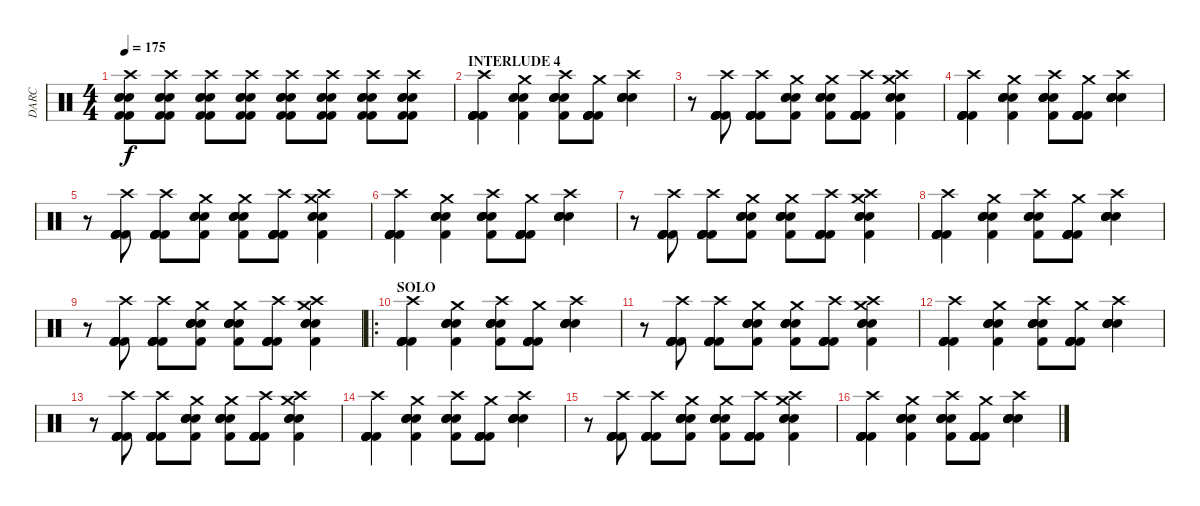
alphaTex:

\track ("DARC" "DARC") {instrument percussion}
\staff {score}
\articulation defaults
\ts (4 4)
\tempo 175
\clef neutral
\ks c
("Kick (hit) 2" "Electric Snare (hit)" "Electric Snare (hit)" "Kick (hit) 2" "Crash high (hit)" "Electric Snare (hit)").8{dy f} ("Kick (hit) 2" "Electric Snare (hit)" "Electric Snare (hit)" "Kick (hit) 2" "Crash high (hit)" "Electric Snare (hit)").8 ("Kick (hit) 2" "Electric Snare (hit)" "Electric Snare (hit)" "Kick (hit) 2" "Crash high (hit)" "Electric Snare (hit)").8 ("Kick (hit) 2" "Electric Snare (hit)" "Electric Snare (hit)" "Kick (hit) 2" "Crash high (hit)" "Electric Snare (hit)").8 ("Kick (hit) 2" "Electric Snare (hit)" "Electric Snare (hit)" "Kick (hit) 2" "Crash high (hit)" "Electric Snare (hit)").8 ("Kick (hit) 2" "Electric Snare (hit)" "Electric Snare (hit)" "Kick (hit) 2" "Crash high (hit)" "Electric Snare (hit)").8 ("Kick (hit) 2" "Electric Snare (hit)" "Electric Snare (hit)" "Kick (hit) 2" "Crash high (hit)" "Electric Snare (hit)").8 ("Kick (hit) 2" "Electric Snare (hit)" "Electric Snare (hit)" "Kick (hit) 2" "Crash high (hit)" "Electric Snare (hit)").8 |
\section ("" "INTERLUDE 4")
("Kick (hit) 2" "Kick (hit) 2" "Kick (hit) 2" "Kick (hit) 2" "Crash high (hit)" "Kick (hit) 2").4 ("Electric Snare (hit)" "Electric Snare (hit)" "Electric Snare (hit)" "Kick (hit) 2" "Crash medium (hit)" "Electric Snare (hit)").4 ("Electric Snare (hit)" "Kick (hit) 2" "Electric Snare (hit)" "Electric Snare (hit)" "Crash high (hit)" "Electric Snare (hit)").8 ("Kick (hit) 2" "Kick (hit) 2" "Kick (hit) 2" "Kick (hit) 2" "Crash medium (hit)" "Kick (hit) 2").8 ("Electric Snare (hit)" "Electric Snare (hit)" "Electric Snare (hit)" "Electric Snare (hit)" "Crash high (hit)" "Electric Snare (hit)").4 |
r.8 ("Kick (hit) 2" "Kick (hit) 2" "Kick (hit) 2" "Kick (hit) 2" "Crash high (hit)" "Kick (hit) 2").8 ("Kick (hit) 2" "Kick (hit) 2" "Kick (hit) 2" "Kick (hit) 2" "Crash high (hit)" "Kick (hit) 2").8 ("Kick (hit) 2" "Electric Snare (hit)" "Electric Snare (hit)" "Electric Snare (hit)" "Crash medium (hit)" "Electric Snare (hit)").8 ("Kick (hit) 2" "Electric Snare (hit)" "Electric Snare (hit)" "Electric Snare (hit)" "Crash medium (hit)" "Electric Snare (hit)").8 ("Kick (hit) 2" "Kick (hit) 2" "Kick (hit) 2" "Kick (hit) 2" "Crash high (hit)" "Kick (hit) 2").8 ("Crash high (hit)" "Kick (hit) 2" "Electric Snare (hit)" "Electric Snare (hit)" "Crash medium (hit)" "Electric Snare (hit)").4 |
("Kick (hit) 2" "Kick (hit) 2" "Kick (hit) 2" "Kick (hit) 2" "Crash high (hit)" "Kick (hit) 2").4 ("Electric Snare (hit)" "Electric Snare (hit)" "Electric Snare (hit)" "Kick (hit) 2" "Crash medium (hit)" "Electric Snare (hit)").4 ("Electric Snare (hit)" "Kick (hit) 2" "Electric Snare (hit)" "Electric Snare (hit)" "Crash high (hit)" "Electric Snare (hit)").8 ("Kick (hit) 2" "Kick (hit) 2" "Kick (hit) 2" "Kick (hit) 2" "Crash medium (hit)" "Kick (hit) 2").8 ("Electric Snare (hit)" "Electric Snare (hit)" "Electric Snare (hit)" "Electric Snare (hit)" "Crash high (hit)" "Electric Snare (hit)").4 |
r.8 ("Kick (hit) 2" "Kick (hit) 2" "Kick (hit) 2" "Kick (hit) 2" "Crash high (hit)" "Kick (hit) 2").8 ("Kick (hit) 2" "Kick (hit) 2" "Kick (hit) 2" "Kick (hit) 2" "Crash high (hit)" "Kick (hit) 2").8 ("Kick (hit) 2" "Electric Snare (hit)" "Electric Snare (hit)" "Electric Snare (hit)" "Crash medium (hit)" "Electric Snare (hit)").8 ("Kick (hit) 2" "Electric Snare (hit)" "Electric Snare (hit)" "Electric Snare (hit)" "Crash medium (hit)" "Electric Snare (hit)").8 ("Kick (hit) 2" "Kick (hit) 2" "Kick (hit) 2" "Kick (hit) 2" "Crash high (hit)" "Kick (hit) 2").8 ("Crash high (hit)" "Kick (hit) 2" "Electric Snare (hit)" "Electric Snare (hit)" "Crash medium (hit)" "Electric Snare (hit)").4 |
("Kick (hit) 2" "Kick (hit) 2" "Kick (hit) 2" "Kick (hit) 2" "Crash high (hit)" "Kick (hit) 2").4 ("Electric Snare (hit)" "Electric Snare (hit)" "Electric Snare (hit)" "Kick (hit) 2" "Crash medium (hit)" "Electric Snare (hit)").4 ("Electric Snare (hit)" "Kick (hit) 2" "Electric Snare (hit)" "Electric Snare (hit)" "Crash high (hit)" "Electric Snare (hit)").8 ("Kick (hit) 2" "Kick (hit) 2" "Kick (hit) 2" "Kick (hit) 2" "Crash medium (hit)" "Kick (hit) 2").8 ("Electric Snare (hit)" "Electric Snare (hit)" "Electric Snare (hit)" "Electric Snare (hit)" "Crash high (hit)" "Electric Snare (hit)").4 |
r.8 ("Kick (hit) 2" "Kick (hit) 2" "Kick (hit) 2" "Kick (hit) 2" "Crash high (hit)" "Kick (hit) 2").8 ("Kick (hit) 2" "Kick (hit) 2" "Kick (hit) 2" "Kick (hit) 2" "Crash high (hit)" "Kick (hit) 2").8 ("Kick (hit) 2" "Electric Snare (hit)" "Electric Snare (hit)" "Electric Snare (hit)" "Crash medium (hit)" "Electric Snare (hit)").8 ("Kick (hit) 2" "Electric Snare (hit)" "Electric Snare (hit)" "Electric Snare (hit)" "Crash medium (hit)" "Electric Snare (hit)").8 ("Kick (hit) 2" "Kick (hit) 2" "Kick (hit) 2" "Kick (hit) 2" "Crash high (hit)" "Kick (hit) 2").8 ("Crash high (hit)" "Kick (hit) 2" "Electric Snare (hit)" "Electric Snare (hit)" "Crash medium (hit)" "Electric Snare (hit)").4 |
("Kick (hit) 2" "Kick (hit) 2" "Kick (hit) 2" "Kick (hit) 2" "Crash high (hit)" "Kick (hit) 2").4 ("Electric Snare (hit)" "Electric Snare (hit)" "Electric Snare (hit)" "Kick (hit) 2" "Crash medium (hit)" "Electric Snare (hit)").4 ("Electric Snare (hit)" "Kick (hit) 2" "Electric Snare (hit)" "Electric Snare (hit)" "Crash high (hit)" "Electric Snare (hit)").8 ("Kick (hit) 2" "Kick (hit) 2" "Kick (hit) 2" "Kick (hit) 2" "Crash medium (hit)" "Kick (hit) 2").8 ("Electric Snare (hit)" "Electric Snare (hit)" "Electric Snare (hit)" "Electric Snare (hit)" "Crash high (hit)" "Electric Snare (hit)").4 |
r.8 ("Kick (hit) 2" "Kick (hit) 2" "Kick (hit) 2" "Kick (hit) 2" "Crash high (hit)" "Kick (hit) 2").8 ("Kick (hit) 2" "Kick (hit) 2" "Kick (hit) 2" "Kick (hit) 2" "Crash high (hit)" "Kick (hit) 2").8 ("Kick (hit) 2" "Electric Snare (hit)" "Electric Snare (hit)" "Electric Snare (hit)" "Crash medium (hit)" "Electric Snare (hit)").8 ("Kick (hit) 2" "Electric Snare (hit)" "Electric Snare (hit)" "Electric Snare (hit)" "Crash medium (hit)" "Electric Snare (hit)").8 ("Kick (hit) 2" "Kick (hit) 2" "Kick (hit) 2" "Kick (hit) 2" "Crash high (hit)" "Kick (hit) 2").8 ("Crash high (hit)" "Kick (hit) 2" "Electric Snare (hit)" "Electric Snare (hit)" "Crash medium (hit)" "Electric Snare (hit)").4 |
\ro
\section ("" "SOLO")
("Kick (hit) 2" "Kick (hit) 2" "Kick (hit) 2" "Kick (hit) 2" "Crash high (hit)" "Kick (hit) 2").4 ("Electric Snare (hit)" "Electric Snare (hit)" "Electric Snare (hit)" "Kick (hit) 2" "Crash medium (hit)" "Electric Snare (hit)").4 ("Electric Snare (hit)" "Kick (hit) 2" "Electric Snare (hit)" "Electric Snare (hit)" "Crash high (hit)" "Electric Snare (hit)").8 ("Kick (hit) 2" "Kick (hit) 2" "Kick (hit) 2" "Kick (hit) 2" "Crash medium (hit)" "Kick (hit) 2").8 ("Electric Snare (hit)" "Electric Snare (hit)" "Electric Snare (hit)" "Electric Snare (hit)" "Crash high (hit)" "Electric Snare (hit)").4 |
r.8 ("Kick (hit) 2" "Kick (hit) 2" "Kick (hit) 2" "Kick (hit) 2" "Crash high (hit)" "Kick (hit) 2").8 ("Kick (hit) 2" "Kick (hit) 2" "Kick (hit) 2" "Kick (hit) 2" "Crash high (hit)" "Kick (hit) 2").8 ("Kick (hit) 2" "Electric Snare (hit)" "Electric Snare (hit)" "Electric Snare (hit)" "Crash medium (hit)" "Electric Snare (hit)").8 ("Kick (hit) 2" "Electric Snare (hit)" "Electric Snare (hit)" "Electric Snare (hit)" "Crash medium (hit)" "Electric Snare (hit)").8 ("Kick (hit) 2" "Kick (hit) 2" "Kick (hit) 2" "Kick (hit) 2" "Crash high (hit)" "Kick (hit) 2").8 ("Crash high (hit)" "Kick (hit) 2" "Electric Snare (hit)" "Electric Snare (hit)" "Crash medium (hit)" "Electric Snare (hit)").4 |
("Kick (hit) 2" "Kick (hit) 2" "Kick (hit) 2" "Kick (hit) 2" "Crash high (hit)" "Kick (hit) 2").4 ("Electric Snare (hit)" "Electric Snare (hit)" "Electric Snare (hit)" "Kick (hit) 2" "Crash medium (hit)" "Electric Snare (hit)").4 ("Electric Snare (hit)" "Kick (hit) 2" "Electric Snare (hit)" "Electric Snare (hit)" "Crash high (hit)" "Electric Snare (hit)").8 ("Kick (hit) 2" "Kick (hit) 2" "Kick (hit) 2" "Kick (hit) 2" "Crash medium (hit)" "Kick (hit) 2").8 ("Electric Snare (hit)" "Electric Snare (hit)" "Electric Snare (hit)" "Electric Snare (hit)" "Crash high (hit)" "Electric Snare (hit)").4 |
r.8 ("Kick (hit) 2" "Kick (hit) 2" "Kick (hit) 2" "Kick (hit) 2" "Crash high (hit)" "Kick (hit) 2").8 ("Kick (hit) 2" "Kick (hit) 2" "Kick (hit) 2" "Kick (hit) 2" "Crash high (hit)" "Kick (hit) 2").8 ("Kick (hit) 2" "Electric Snare (hit)" "Electric Snare (hit)" "Electric Snare (hit)" "Crash medium (hit)" "Electric Snare (hit)").8 ("Kick (hit) 2" "Electric Snare (hit)" "Electric Snare (hit)" "Electric Snare (hit)" "Crash medium (hit)" "Electric Snare (hit)").8 ("Kick (hit) 2" "Kick (hit) 2" "Kick (hit) 2" "Kick (hit) 2" "Crash high (hit)" "Kick (hit) 2").8 ("Crash high (hit)" "Kick (hit) 2" "Electric Snare (hit)" "Electric Snare (hit)" "Crash medium (hit)" "Electric Snare (hit)").4 |
("Kick (hit) 2" "Kick (hit) 2" "Kick (hit) 2" "Kick (hit) 2" "Crash high (hit)" "Kick (hit) 2").4 ("Electric Snare (hit)" "Electric Snare (hit)" "Electric Snare (hit)" "Kick (hit) 2" "Crash medium (hit)" "Electric Snare (hit)").4 ("Electric Snare (hit)" "Kick (hit) 2" "Electric Snare (hit)" "Electric Snare (hit)" "Crash high (hit)" "Electric Snare (hit)").8 ("Kick (hit) 2" "Kick (hit) 2" "Kick (hit) 2" "Kick (hit) 2" "Crash medium (hit)" "Kick (hit) 2").8 ("Electric Snare (hit)" "Electric Snare (hit)" "Electric Snare (hit)" "Electric Snare (hit)" "Crash high (hit)" "Electric Snare (hit)").4 |
r.8 ("Kick (hit) 2" "Kick (hit) 2" "Kick (hit) 2" "Kick (hit) 2" "Crash high (hit)" "Kick (hit) 2").8 ("Kick (hit) 2" "Kick (hit) 2" "Kick (hit) 2" "Kick (hit) 2" "Crash high (hit)" "Kick (hit) 2").8 ("Kick (hit) 2" "Electric Snare (hit)" "Electric Snare (hit)" "Electric Snare (hit)" "Crash medium (hit)" "Electric Snare (hit)").8 ("Kick (hit) 2" "Electric Snare (hit)" "Electric Snare (hit)" "Electric Snare (hit)" "Crash medium (hit)" "Electric Snare (hit)").8 ("Kick (hit) 2" "Kick (hit) 2" "Kick (hit) 2" "Kick (hit) 2" "Crash high (hit)" "Kick (hit) 2").8 ("Crash high (hit)" "Kick (hit) 2" "Electric Snare (hit)" "Electric Snare (hit)" "Crash medium (hit)" "Electric Snare (hit)").4 |
("Kick (hit) 2" "Kick (hit) 2" "Kick (hit) 2" "Kick (hit) 2" "Crash high (hit)" "Kick (hit) 2").4 ("Electric Snare (hit)" "Electric Snare (hit)" "Electric Snare (hit)" "Kick (hit) 2" "Crash medium (hit)" "Electric Snare (hit)").4 ("Electric Snare (hit)" "Kick (hit) 2" "Electric Snare (hit)" "Electric Snare (hit)" "Crash high (hit)" "Electric Snare (hit)").8 ("Kick (hit) 2" "Kick (hit) 2" "Kick (hit) 2" "Kick (hit) 2" "Crash medium (hit)" "Kick (hit) 2").8 ("Electric Snare (hit)" "Electric Snare (hit)" "Electric Snare (hit)" "Electric Snare (hit)" "Crash high (hit)" "Electric Snare (hit)").4
